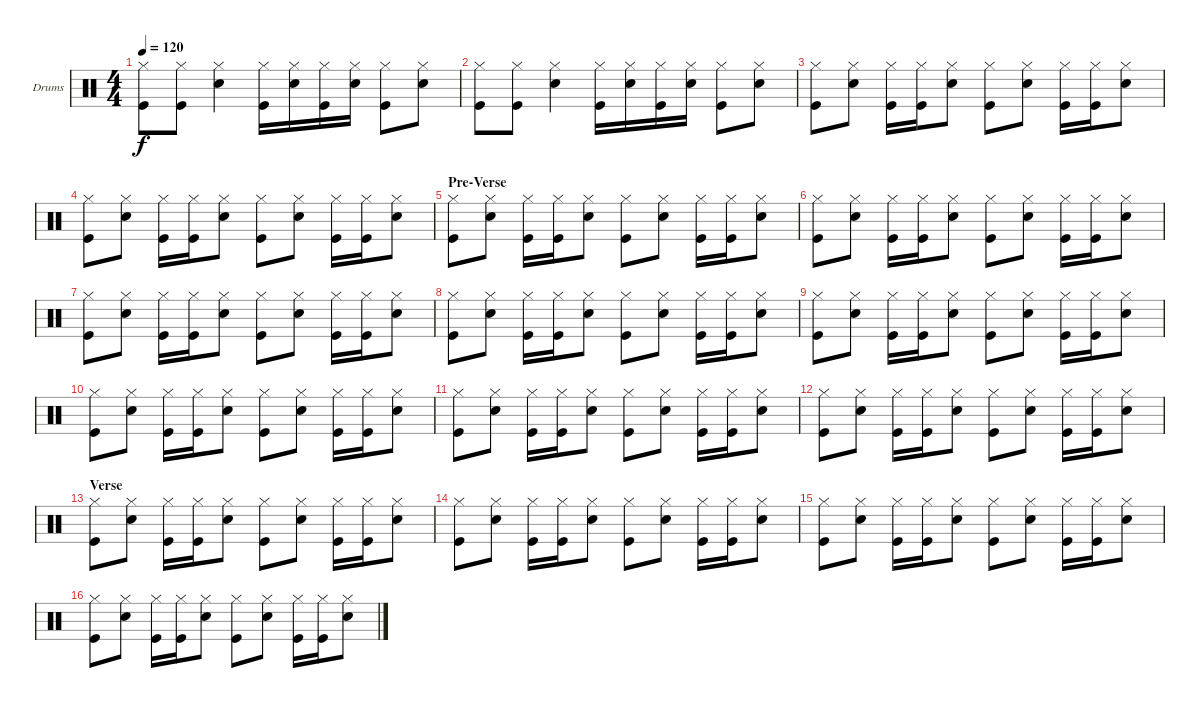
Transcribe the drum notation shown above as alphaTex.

\defaultSystemsLayout 4
\bracketExtendMode groupsimilarinstruments
\firstSystemTrackNameOrientation horizontal
\otherSystemsTrackNameOrientation horizontal
\track ("Drumkit" "Drums") {instrument percussion}
\staff {score}
\articulation defaults
\ts (4 4)
\tempo 120
\clef neutral
\ks c
("Hi-Hat (closed)" "Kick (hit)").8{dy f} ("Hi-Hat (closed)" "Kick (hit)").8 ("Hi-Hat (closed)" "Snare (hit) 2").4 ("Hi-Hat (closed)" "Kick (hit)").16 ("Hi-Hat (closed)" "Snare (hit) 2").16 ("Hi-Hat (closed)" "Kick (hit)").16 ("Hi-Hat (closed)" "Snare (hit) 2").16 ("Hi-Hat (closed)" "Kick (hit)").8 ("Hi-Hat (closed)" "Snare (hit) 2").8 |
("Hi-Hat (closed)" "Kick (hit)").8 ("Hi-Hat (closed)" "Kick (hit)").8 ("Hi-Hat (closed)" "Snare (hit) 2").4 ("Hi-Hat (closed)" "Kick (hit)").16 ("Hi-Hat (closed)" "Snare (hit) 2").16 ("Hi-Hat (closed)" "Kick (hit)").16 ("Hi-Hat (closed)" "Snare (hit) 2").16 ("Hi-Hat (closed)" "Kick (hit)").8 ("Hi-Hat (closed)" "Snare (hit) 2").8 |
("Hi-Hat (closed)" "Kick (hit)").8 ("Hi-Hat (closed)" "Snare (hit) 2").8 ("Hi-Hat (closed)" "Kick (hit)").16 ("Hi-Hat (closed)" "Kick (hit)").16 ("Hi-Hat (closed)" "Snare (hit) 2").8 ("Hi-Hat (closed)" "Kick (hit)").8 ("Hi-Hat (closed)" "Snare (hit) 2").8 ("Hi-Hat (closed)" "Kick (hit)").16 ("Hi-Hat (closed)" "Kick (hit)").16 ("Hi-Hat (closed)" "Snare (hit) 2").8 |
("Hi-Hat (closed)" "Kick (hit)").8 ("Hi-Hat (closed)" "Snare (hit) 2").8 ("Hi-Hat (closed)" "Kick (hit)").16 ("Hi-Hat (closed)" "Kick (hit)").16 ("Hi-Hat (closed)" "Snare (hit) 2").8 ("Hi-Hat (closed)" "Kick (hit)").8 ("Hi-Hat (closed)" "Snare (hit) 2").8 ("Hi-Hat (closed)" "Kick (hit)").16 ("Hi-Hat (closed)" "Kick (hit)").16 ("Hi-Hat (closed)" "Snare (hit) 2").8 |
\section ("" "Pre-Verse")
("Hi-Hat (closed)" "Kick (hit)").8 ("Hi-Hat (closed)" "Snare (hit) 2").8 ("Hi-Hat (closed)" "Kick (hit)").16 ("Hi-Hat (closed)" "Kick (hit)").16 ("Hi-Hat (closed)" "Snare (hit) 2").8 ("Hi-Hat (closed)" "Kick (hit)").8 ("Hi-Hat (closed)" "Snare (hit) 2").8 ("Hi-Hat (closed)" "Kick (hit)").16 ("Hi-Hat (closed)" "Kick (hit)").16 ("Hi-Hat (closed)" "Snare (hit) 2").8 |
("Hi-Hat (closed)" "Kick (hit)").8 ("Hi-Hat (closed)" "Snare (hit) 2").8 ("Hi-Hat (closed)" "Kick (hit)").16 ("Hi-Hat (closed)" "Kick (hit)").16 ("Hi-Hat (closed)" "Snare (hit) 2").8 ("Hi-Hat (closed)" "Kick (hit)").8 ("Hi-Hat (closed)" "Snare (hit) 2").8 ("Hi-Hat (closed)" "Kick (hit)").16 ("Hi-Hat (closed)" "Kick (hit)").16 ("Hi-Hat (closed)" "Snare (hit) 2").8 |
("Hi-Hat (closed)" "Kick (hit)").8 ("Hi-Hat (closed)" "Snare (hit) 2").8 ("Hi-Hat (closed)" "Kick (hit)").16 ("Hi-Hat (closed)" "Kick (hit)").16 ("Hi-Hat (closed)" "Snare (hit) 2").8 ("Hi-Hat (closed)" "Kick (hit)").8 ("Hi-Hat (closed)" "Snare (hit) 2").8 ("Hi-Hat (closed)" "Kick (hit)").16 ("Hi-Hat (closed)" "Kick (hit)").16 ("Hi-Hat (closed)" "Snare (hit) 2").8 |
("Hi-Hat (closed)" "Kick (hit)").8 ("Hi-Hat (closed)" "Snare (hit) 2").8 ("Hi-Hat (closed)" "Kick (hit)").16 ("Hi-Hat (closed)" "Kick (hit)").16 ("Hi-Hat (closed)" "Snare (hit) 2").8 ("Hi-Hat (closed)" "Kick (hit)").8 ("Hi-Hat (closed)" "Snare (hit) 2").8 ("Hi-Hat (closed)" "Kick (hit)").16 ("Hi-Hat (closed)" "Kick (hit)").16 ("Hi-Hat (closed)" "Snare (hit) 2").8 |
("Hi-Hat (closed)" "Kick (hit)").8 ("Hi-Hat (closed)" "Snare (hit) 2").8 ("Hi-Hat (closed)" "Kick (hit)").16 ("Hi-Hat (closed)" "Kick (hit)").16 ("Hi-Hat (closed)" "Snare (hit) 2").8 ("Hi-Hat (closed)" "Kick (hit)").8 ("Hi-Hat (closed)" "Snare (hit) 2").8 ("Hi-Hat (closed)" "Kick (hit)").16 ("Hi-Hat (closed)" "Kick (hit)").16 ("Hi-Hat (closed)" "Snare (hit) 2").8 |
("Hi-Hat (closed)" "Kick (hit)").8 ("Hi-Hat (closed)" "Snare (hit) 2").8 ("Hi-Hat (closed)" "Kick (hit)").16 ("Hi-Hat (closed)" "Kick (hit)").16 ("Hi-Hat (closed)" "Snare (hit) 2").8 ("Hi-Hat (closed)" "Kick (hit)").8 ("Hi-Hat (closed)" "Snare (hit) 2").8 ("Hi-Hat (closed)" "Kick (hit)").16 ("Hi-Hat (closed)" "Kick (hit)").16 ("Hi-Hat (closed)" "Snare (hit) 2").8 |
("Hi-Hat (closed)" "Kick (hit)").8 ("Hi-Hat (closed)" "Snare (hit) 2").8 ("Hi-Hat (closed)" "Kick (hit)").16 ("Hi-Hat (closed)" "Kick (hit)").16 ("Hi-Hat (closed)" "Snare (hit) 2").8 ("Hi-Hat (closed)" "Kick (hit)").8 ("Hi-Hat (closed)" "Snare (hit) 2").8 ("Hi-Hat (closed)" "Kick (hit)").16 ("Hi-Hat (closed)" "Kick (hit)").16 ("Hi-Hat (closed)" "Snare (hit) 2").8 |
("Hi-Hat (closed)" "Kick (hit)").8 ("Hi-Hat (closed)" "Snare (hit) 2").8 ("Hi-Hat (closed)" "Kick (hit)").16 ("Hi-Hat (closed)" "Kick (hit)").16 ("Hi-Hat (closed)" "Snare (hit) 2").8 ("Hi-Hat (closed)" "Kick (hit)").8 ("Hi-Hat (closed)" "Snare (hit) 2").8 ("Hi-Hat (closed)" "Kick (hit)").16 ("Hi-Hat (closed)" "Kick (hit)").16 ("Hi-Hat (closed)" "Snare (hit) 2").8 |
\section ("" "Verse")
("Hi-Hat (closed)" "Kick (hit)").8 ("Hi-Hat (closed)" "Snare (hit) 2").8 ("Hi-Hat (closed)" "Kick (hit)").16 ("Hi-Hat (closed)" "Kick (hit)").16 ("Hi-Hat (closed)" "Snare (hit) 2").8 ("Hi-Hat (closed)" "Kick (hit)").8 ("Hi-Hat (closed)" "Snare (hit) 2").8 ("Hi-Hat (closed)" "Kick (hit)").16 ("Hi-Hat (closed)" "Kick (hit)").16 ("Hi-Hat (closed)" "Snare (hit) 2").8 |
("Hi-Hat (closed)" "Kick (hit)").8 ("Hi-Hat (closed)" "Snare (hit) 2").8 ("Hi-Hat (closed)" "Kick (hit)").16 ("Hi-Hat (closed)" "Kick (hit)").16 ("Hi-Hat (closed)" "Snare (hit) 2").8 ("Hi-Hat (closed)" "Kick (hit)").8 ("Hi-Hat (closed)" "Snare (hit) 2").8 ("Hi-Hat (closed)" "Kick (hit)").16 ("Hi-Hat (closed)" "Kick (hit)").16 ("Hi-Hat (closed)" "Snare (hit) 2").8 |
("Hi-Hat (closed)" "Kick (hit)").8 ("Hi-Hat (closed)" "Snare (hit) 2").8 ("Hi-Hat (closed)" "Kick (hit)").16 ("Hi-Hat (closed)" "Kick (hit)").16 ("Hi-Hat (closed)" "Snare (hit) 2").8 ("Hi-Hat (closed)" "Kick (hit)").8 ("Hi-Hat (closed)" "Snare (hit) 2").8 ("Hi-Hat (closed)" "Kick (hit)").16 ("Hi-Hat (closed)" "Kick (hit)").16 ("Hi-Hat (closed)" "Snare (hit) 2").8 |
("Hi-Hat (closed)" "Kick (hit)").8 ("Hi-Hat (closed)" "Snare (hit) 2").8 ("Hi-Hat (closed)" "Kick (hit)").16 ("Hi-Hat (closed)" "Kick (hit)").16 ("Hi-Hat (closed)" "Snare (hit) 2").8 ("Hi-Hat (closed)" "Kick (hit)").8 ("Hi-Hat (closed)" "Snare (hit) 2").8 ("Hi-Hat (closed)" "Kick (hit)").16 ("Hi-Hat (closed)" "Kick (hit)").16 ("Hi-Hat (closed)" "Snare (hit) 2").8
